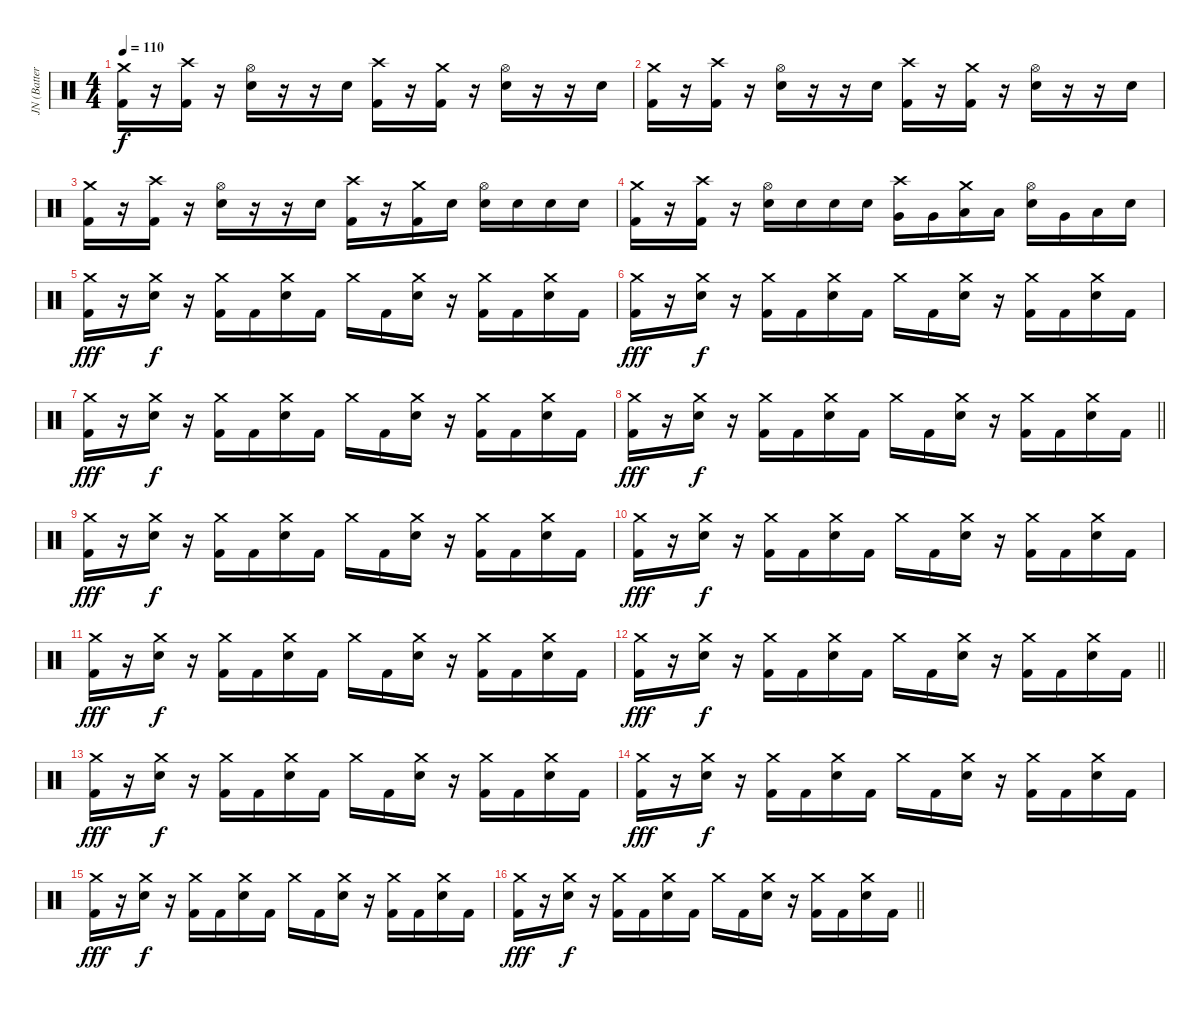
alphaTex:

\track ("JN (Batterie)" "JN (Batter") {instrument percussion}
\staff {score}
\articulation defaults
\ts (4 4)
\tempo 110
\clef neutral
\ks c
("Crash medium (hit)" "Kick (hit) 2").16{dy f} r.16 ("Crash high (hit)" "Kick (hit) 2").16 r.16 ("Hi-Hat (open)" "Electric Snare (hit)").16 r.16 r.16 "Electric Snare (hit)".16 ("Crash high (hit)" "Kick (hit) 2").16 r.16 ("Crash medium (hit)" "Kick (hit) 2").16 r.16 ("Hi-Hat (open)" "Electric Snare (hit)").16 r.16 r.16 "Electric Snare (hit)".16 |
("Crash medium (hit)" "Kick (hit) 2").16 r.16 ("Crash high (hit)" "Kick (hit) 2").16 r.16 ("Hi-Hat (open)" "Electric Snare (hit)").16 r.16 r.16 "Electric Snare (hit)".16 ("Crash high (hit)" "Kick (hit) 2").16 r.16 ("Crash medium (hit)" "Kick (hit) 2").16 r.16 ("Hi-Hat (open)" "Electric Snare (hit)").16 r.16 r.16 "Electric Snare (hit)".16 |
("Crash medium (hit)" "Kick (hit) 2").16 r.16 ("Crash high (hit)" "Kick (hit) 2").16 r.16 ("Hi-Hat (open)" "Electric Snare (hit)").16 r.16 r.16 "Electric Snare (hit)".16 ("Crash high (hit)" "Kick (hit) 2").16 r.16 ("Crash medium (hit)" "Kick (hit) 2").16 "Electric Snare (hit)".16 ("Hi-Hat (open)" "Electric Snare (hit)").16 "Electric Snare (hit)".16 "Electric Snare (hit)".16 "Electric Snare (hit)".16 |
("Crash medium (hit)" "Kick (hit) 2").16 r.16 ("Crash high (hit)" "Kick (hit) 2").16 r.16 ("Hi-Hat (open)" "Electric Snare (hit)").16 "Electric Snare (hit)".16 "Electric Snare (hit)".16 "Electric Snare (hit)".16 ("Crash high (hit)" "Very Low Tom (hit)").16 "Very Low Tom (hit)".16 ("Crash medium (hit)" "Low Tom (hit)").16 "Low Tom (hit)".16 ("Hi-Hat (open)" "Electric Snare (hit)").16 "Very Low Tom (hit)".16 "Low Tom (hit)".16 "Electric Snare (hit)".16 |
("Crash medium (hit)" "Kick (hit) 2").16{dy fff} r.16 ("Crash medium (hit)" "Electric Snare (hit)").16{dy f} r.16 ("Crash medium (hit)" "Kick (hit) 2").16 "Kick (hit) 2".16 ("Crash medium (hit)" "Electric Snare (hit)").16 "Kick (hit) 2".16 "Crash medium (hit)".16 "Kick (hit) 2".16 ("Crash medium (hit)" "Electric Snare (hit)").16 r.16 ("Crash medium (hit)" "Kick (hit) 2").16 "Kick (hit) 2".16 ("Crash medium (hit)" "Electric Snare (hit)").16 "Kick (hit) 2".16 |
("Crash medium (hit)" "Kick (hit) 2").16{dy fff} r.16 ("Crash medium (hit)" "Electric Snare (hit)").16{dy f} r.16 ("Crash medium (hit)" "Kick (hit) 2").16 "Kick (hit) 2".16 ("Crash medium (hit)" "Electric Snare (hit)").16 "Kick (hit) 2".16 "Crash medium (hit)".16 "Kick (hit) 2".16 ("Crash medium (hit)" "Electric Snare (hit)").16 r.16 ("Crash medium (hit)" "Kick (hit) 2").16 "Kick (hit) 2".16 ("Crash medium (hit)" "Electric Snare (hit)").16 "Kick (hit) 2".16 |
("Crash medium (hit)" "Kick (hit) 2").16{dy fff} r.16 ("Crash medium (hit)" "Electric Snare (hit)").16{dy f} r.16 ("Crash medium (hit)" "Kick (hit) 2").16 "Kick (hit) 2".16 ("Crash medium (hit)" "Electric Snare (hit)").16 "Kick (hit) 2".16 "Crash medium (hit)".16 "Kick (hit) 2".16 ("Crash medium (hit)" "Electric Snare (hit)").16 r.16 ("Crash medium (hit)" "Kick (hit) 2").16 "Kick (hit) 2".16 ("Crash medium (hit)" "Electric Snare (hit)").16 "Kick (hit) 2".16 |
\barLineRight lightlight
("Crash medium (hit)" "Kick (hit) 2").16{dy fff} r.16 ("Crash medium (hit)" "Electric Snare (hit)").16{dy f} r.16 ("Crash medium (hit)" "Kick (hit) 2").16 "Kick (hit) 2".16 ("Crash medium (hit)" "Electric Snare (hit)").16 "Kick (hit) 2".16 "Crash medium (hit)".16 "Kick (hit) 2".16 ("Crash medium (hit)" "Electric Snare (hit)").16 r.16 ("Crash medium (hit)" "Kick (hit) 2").16 "Kick (hit) 2".16 ("Crash medium (hit)" "Electric Snare (hit)").16 "Kick (hit) 2".16 |
("Crash medium (hit)" "Kick (hit) 2").16{dy fff} r.16 ("Crash medium (hit)" "Electric Snare (hit)").16{dy f} r.16 ("Crash medium (hit)" "Kick (hit) 2").16 "Kick (hit) 2".16 ("Crash medium (hit)" "Electric Snare (hit)").16 "Kick (hit) 2".16 "Crash medium (hit)".16 "Kick (hit) 2".16 ("Crash medium (hit)" "Electric Snare (hit)").16 r.16 ("Crash medium (hit)" "Kick (hit) 2").16 "Kick (hit) 2".16 ("Crash medium (hit)" "Electric Snare (hit)").16 "Kick (hit) 2".16 |
("Crash medium (hit)" "Kick (hit) 2").16{dy fff} r.16 ("Crash medium (hit)" "Electric Snare (hit)").16{dy f} r.16 ("Crash medium (hit)" "Kick (hit) 2").16 "Kick (hit) 2".16 ("Crash medium (hit)" "Electric Snare (hit)").16 "Kick (hit) 2".16 "Crash medium (hit)".16 "Kick (hit) 2".16 ("Crash medium (hit)" "Electric Snare (hit)").16 r.16 ("Crash medium (hit)" "Kick (hit) 2").16 "Kick (hit) 2".16 ("Crash medium (hit)" "Electric Snare (hit)").16 "Kick (hit) 2".16 |
("Crash medium (hit)" "Kick (hit) 2").16{dy fff} r.16 ("Crash medium (hit)" "Electric Snare (hit)").16{dy f} r.16 ("Crash medium (hit)" "Kick (hit) 2").16 "Kick (hit) 2".16 ("Crash medium (hit)" "Electric Snare (hit)").16 "Kick (hit) 2".16 "Crash medium (hit)".16 "Kick (hit) 2".16 ("Crash medium (hit)" "Electric Snare (hit)").16 r.16 ("Crash medium (hit)" "Kick (hit) 2").16 "Kick (hit) 2".16 ("Crash medium (hit)" "Electric Snare (hit)").16 "Kick (hit) 2".16 |
\barLineRight lightlight
("Crash medium (hit)" "Kick (hit) 2").16{dy fff} r.16 ("Crash medium (hit)" "Electric Snare (hit)").16{dy f} r.16 ("Crash medium (hit)" "Kick (hit) 2").16 "Kick (hit) 2".16 ("Crash medium (hit)" "Electric Snare (hit)").16 "Kick (hit) 2".16 "Crash medium (hit)".16 "Kick (hit) 2".16 ("Crash medium (hit)" "Electric Snare (hit)").16 r.16 ("Crash medium (hit)" "Kick (hit) 2").16 "Kick (hit) 2".16 ("Crash medium (hit)" "Electric Snare (hit)").16 "Kick (hit) 2".16 |
("Crash medium (hit)" "Kick (hit) 2").16{dy fff} r.16 ("Crash medium (hit)" "Electric Snare (hit)").16{dy f} r.16 ("Crash medium (hit)" "Kick (hit) 2").16 "Kick (hit) 2".16 ("Crash medium (hit)" "Electric Snare (hit)").16 "Kick (hit) 2".16 "Crash medium (hit)".16 "Kick (hit) 2".16 ("Crash medium (hit)" "Electric Snare (hit)").16 r.16 ("Crash medium (hit)" "Kick (hit) 2").16 "Kick (hit) 2".16 ("Crash medium (hit)" "Electric Snare (hit)").16 "Kick (hit) 2".16 |
("Crash medium (hit)" "Kick (hit) 2").16{dy fff} r.16 ("Crash medium (hit)" "Electric Snare (hit)").16{dy f} r.16 ("Crash medium (hit)" "Kick (hit) 2").16 "Kick (hit) 2".16 ("Crash medium (hit)" "Electric Snare (hit)").16 "Kick (hit) 2".16 "Crash medium (hit)".16 "Kick (hit) 2".16 ("Crash medium (hit)" "Electric Snare (hit)").16 r.16 ("Crash medium (hit)" "Kick (hit) 2").16 "Kick (hit) 2".16 ("Crash medium (hit)" "Electric Snare (hit)").16 "Kick (hit) 2".16 |
("Crash medium (hit)" "Kick (hit) 2").16{dy fff} r.16 ("Crash medium (hit)" "Electric Snare (hit)").16{dy f} r.16 ("Crash medium (hit)" "Kick (hit) 2").16 "Kick (hit) 2".16 ("Crash medium (hit)" "Electric Snare (hit)").16 "Kick (hit) 2".16 "Crash medium (hit)".16 "Kick (hit) 2".16 ("Crash medium (hit)" "Electric Snare (hit)").16 r.16 ("Crash medium (hit)" "Kick (hit) 2").16 "Kick (hit) 2".16 ("Crash medium (hit)" "Electric Snare (hit)").16 "Kick (hit) 2".16 |
\barLineRight lightlight
("Crash medium (hit)" "Kick (hit) 2").16{dy fff} r.16 ("Crash medium (hit)" "Electric Snare (hit)").16{dy f} r.16 ("Crash medium (hit)" "Kick (hit) 2").16 "Kick (hit) 2".16 ("Crash medium (hit)" "Electric Snare (hit)").16 "Kick (hit) 2".16 "Crash medium (hit)".16 "Kick (hit) 2".16 ("Crash medium (hit)" "Electric Snare (hit)").16 r.16 ("Crash medium (hit)" "Kick (hit) 2").16 "Kick (hit) 2".16 ("Crash medium (hit)" "Electric Snare (hit)").16 "Kick (hit) 2".16
